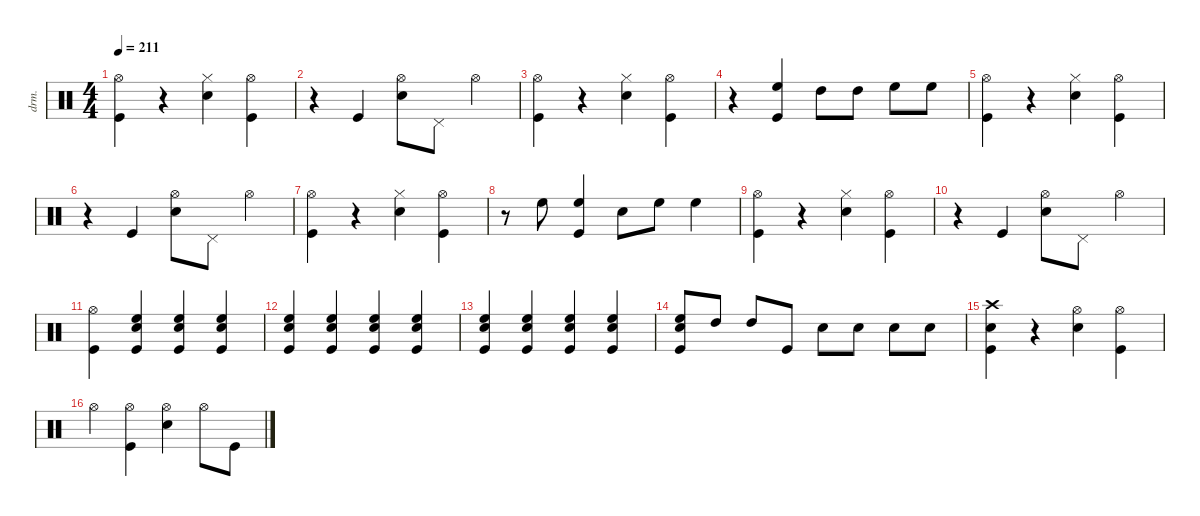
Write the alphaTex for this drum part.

\defaultSystemsLayout 4
\hideDynamics
\bracketExtendMode nobrackets
\otherSystemsTrackNameOrientation horizontal
\track ("Drums" "drm.") {instrument percussion}
\staff {score}
\articulation defaults
\ts (4 4)
\tempo 211
\clef neutral
\ks c
("Kick (hit)" "Hi-Hat (open)"{acc #}).4{dy fff beam Down} r.4{beam Down} ("Snare (hit) 2" "Hi-Hat (closed)"{acc #}).4{dy ff beam Down} ("Kick (hit)" "Hi-Hat (open)"{acc #}).4{dy f beam Down} |
r.4{beam Down} "Kick (hit)".4{dy fff beam Up} ("Snare (hit) 2" "Hi-Hat (open)"{acc #}).8{dy ff beam Down} "Pedal Hi-Hat (hit)"{acc #}.8{beam Down} "Hi-Hat (open)"{acc #}.4{dy fff beam Down} |
("Kick (hit)" "Hi-Hat (open)"{acc #}).4{beam Down} r.4{beam Down} ("Snare (hit) 2" "Hi-Hat (closed)"{acc #}).4{dy ff beam Down} ("Kick (hit)" "Hi-Hat (open)"{acc #}).4{dy f beam Down} |
r.4{beam Down} ("Kick (hit)" "High Floor Tom (hit)").4{dy fff beam Up} "High Tom (hit)".8{dy ff beam Down} "High Tom (hit)".8{dy mf beam Down} "High Floor Tom (hit)".8{dy ff beam Down} "High Floor Tom (hit)".8{dy f beam Down} |
("Kick (hit)" "Hi-Hat (open)"{acc #}).4{dy fff beam Down} r.4{beam Down} ("Snare (hit) 2" "Hi-Hat (closed)"{acc #}).4{dy ff beam Down} ("Kick (hit)" "Hi-Hat (open)"{acc #}).4{dy f beam Down} |
r.4{beam Down} "Kick (hit)".4{dy fff beam Up} ("Snare (hit) 2" "Hi-Hat (open)"{acc #}).8{dy ff beam Down} "Pedal Hi-Hat (hit)"{acc #}.8{beam Down} "Hi-Hat (open)"{acc #}.4{dy fff beam Down} |
("Kick (hit)" "Hi-Hat (open)"{acc #}).4{beam Down} r.4{beam Down} ("Snare (hit) 2" "Hi-Hat (closed)"{acc #}).4{dy ff beam Down} ("Kick (hit)" "Hi-Hat (open)"{acc #}).4{dy f beam Down} |
r.8{beam Down} "High Floor Tom (hit)".8{dy mp beam Down} ("Kick (hit)" "High Floor Tom (hit)").4{dy fff beam Up} "Snare (hit) 2".8{dy ff beam Down} "High Floor Tom (hit)".8{dy p beam Down} "High Floor Tom (hit)".4{dy ff beam Down} |
("Kick (hit)" "Hi-Hat (open)"{acc #}).4{dy fff beam Down} r.4{beam Down} ("Snare (hit) 2" "Hi-Hat (closed)"{acc #}).4{dy ff beam Down} ("Kick (hit)" "Hi-Hat (open)"{acc #}).4{dy f beam Down} |
r.4{beam Down} "Kick (hit)".4{dy fff beam Up} ("Snare (hit) 2" "Hi-Hat (open)"{acc #}).8{dy ff beam Down} "Pedal Hi-Hat (hit)"{acc #}.8{beam Down} "Hi-Hat (open)"{acc #}.4{dy fff beam Down} |
("Kick (hit)" "Hi-Hat (open)"{acc #}).4{beam Down} ("Kick (hit)" "Snare (hit) 2" "High Floor Tom (hit)").4{dy ff beam Up} ("Kick (hit)" "Snare (hit) 2" "High Floor Tom (hit)").4{beam Up} ("Kick (hit)" "Snare (hit) 2" "High Floor Tom (hit)").4{beam Up} |
("Snare (hit) 2" "Kick (hit)" "High Floor Tom (hit)").4{beam Up} ("Kick (hit)" "Snare (hit) 2" "High Floor Tom (hit)").4{beam Up} ("Snare (hit) 2" "Kick (hit)" "High Floor Tom (hit)").4{beam Up} ("Snare (hit) 2" "Kick (hit)" "High Floor Tom (hit)").4{beam Up} |
("Kick (hit)" "Snare (hit) 2" "High Floor Tom (hit)").4{beam Up} ("Kick (hit)" "Snare (hit) 2" "High Floor Tom (hit)").4{beam Up} ("Snare (hit) 2" "Kick (hit)" "High Floor Tom (hit)").4{beam Up} ("Kick (hit)" "Snare (hit) 2" "High Floor Tom (hit)").4{beam Up} |
("Kick (hit)" "Snare (hit) 2" "High Floor Tom (hit)").8{beam Up} "High Tom (hit)".8{dy f beam Up} "High Tom (hit)".8{dy mp beam Up} "Kick (hit)".8{dy ff beam Up} "Snare (hit) 2".8{dy fff beam Down} "Snare (hit) 2".8{dy f beam Down} "Snare (hit) 2".8{dy fff beam Down} "Snare (hit) 2".8{dy f beam Down} |
("Kick (hit)" "Snare (hit) 2" "Crash high (hit)"{acc #}).4{dy fff beam Down} r.4{beam Down} ("Snare (hit) 2" "Hi-Hat (open)"{acc #}).4{dy ff beam Down} ("Kick (hit)" "Hi-Hat (open)"{acc #}).4{beam Down} |
"Hi-Hat (open)"{acc #}.4{dy fff beam Down} ("Kick (hit)" "Hi-Hat (open)"{acc #}).4{dy ff beam Down} ("Snare (hit) 2" "Hi-Hat (open)"{acc #}).4{beam Down} "Hi-Hat (open)"{acc #}.8{dy mf beam Down} "Kick (hit)".8{beam Down}
